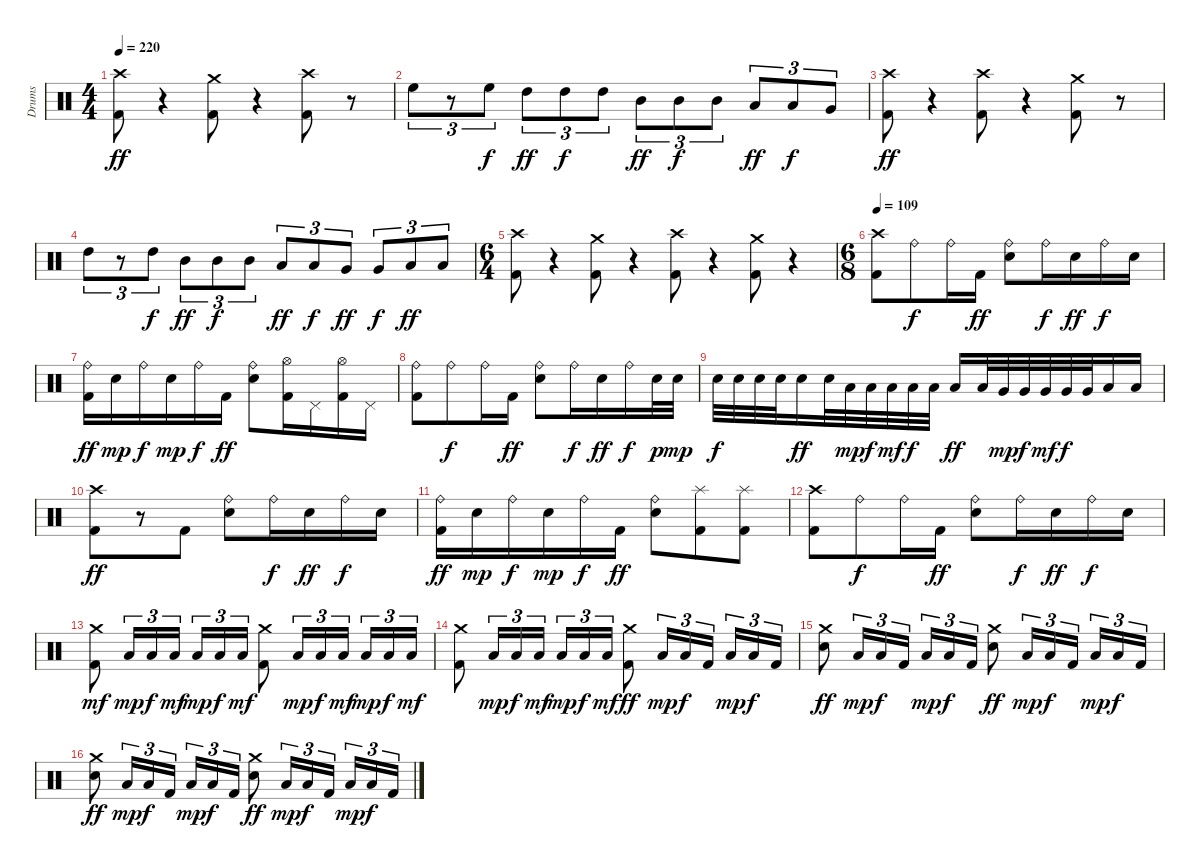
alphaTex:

\track ("Drums" "Drums") {instrument percussion}
\staff {score}
\articulation defaults
\ts (4 4)
\tempo 220
\clef neutral
\ks c
("Kick (hit) 2" "Crash high (hit)").8{dy ff} r.4 ("Kick (hit) 2" "Crash medium (hit)").8 r.4 ("Kick (hit) 2" "Crash high (hit)").8 r.8 |
"High Floor Tom (hit)".8{tu (3 2)} r.8{tu (3 2)} "High Floor Tom (hit)".8{tu (3 2) dy f} "High Tom (hit)".8{tu (3 2) dy ff} "High Tom (hit)".8{tu (3 2) dy f} "High Tom (hit)".8{tu (3 2)} "Mid Tom (hit)".8{tu (3 2) dy ff} "Mid Tom (hit)".8{tu (3 2) dy f} "Mid Tom (hit)".8{tu (3 2)} "Low Tom (hit)".8{tu (3 2) dy ff} "Low Tom (hit)".8{tu (3 2) dy f} "Very Low Tom (hit)".8{tu (3 2)} |
("Kick (hit) 2" "Crash high (hit)").8{dy ff} r.4 ("Kick (hit) 2" "Crash high (hit)").8 r.4 ("Kick (hit) 2" "Crash medium (hit)").8 r.8 |
"High Tom (hit)".8{tu (3 2)} r.8{tu (3 2)} "High Tom (hit)".8{tu (3 2) dy f} "Mid Tom (hit)".8{tu (3 2) dy ff} "Mid Tom (hit)".8{tu (3 2) dy f} "Mid Tom (hit)".8{tu (3 2)} "Low Tom (hit)".8{tu (3 2) dy ff} "Low Tom (hit)".8{tu (3 2) dy f} "Very Low Tom (hit)".8{tu (3 2) dy ff} "Very Low Tom (hit)".8{tu (3 2) dy f} "Low Floor Tom (hit)".8{tu (3 2) dy ff} "Low Floor Tom (hit)".8{tu (3 2)} |
\ts (6 4)
("Kick (hit) 2" "Crash high (hit)").8 r.4 ("Kick (hit) 2" "Crash medium (hit)").8 r.4 ("Kick (hit) 2" "Crash high (hit)").8 r.4 ("Kick (hit) 2" "Crash medium (hit)").8 r.4 |
\ts (6 8)
\tempo 109
("Kick (hit) 2" "Crash high (hit)").8 "Ride (bell)".8{dy f} "Ride (bell)".16 "Kick (hit) 2".16{dy ff} ("Electric Snare (hit)" "Ride (bell)").8 "Ride (bell)".16{dy f} "Electric Snare (hit)".16{dy ff} "Ride (bell)".16{dy f} "Electric Snare (hit)".16 |
("Kick (hit) 2" "Ride (bell)").16{dy ff} "Electric Snare (hit)".16{dy mp} "Ride (bell)".16{dy f} "Electric Snare (hit)".16{dy mp} "Ride (bell)".16{dy f} "Kick (hit) 2".16{dy ff} ("Electric Snare (hit)" "Ride (bell)").8 ("Kick (hit) 2" "Hi-Hat (open)").16 "Pedal Hi-Hat (hit)".16 ("Kick (hit) 2" "Hi-Hat (open)").16 "Pedal Hi-Hat (hit)".16 |
("Kick (hit) 2" "Ride (bell)").8 "Ride (bell)".8{dy f} "Ride (bell)".16 "Kick (hit) 2".16{dy ff} ("Electric Snare (hit)" "Ride (bell)").8 "Ride (bell)".16{dy f} "Electric Snare (hit)".16{dy ff} "Ride (bell)".16{dy f} "Electric Snare (hit)".32{dy p} "Electric Snare (hit)".32{dy mp} |
"Electric Snare (hit)".32{dy f} "Electric Snare (hit)".32 "Electric Snare (hit)".32 "Electric Snare (hit)".32 "Electric Snare (hit)".16{dy ff} "Electric Snare (hit)".32 "Low Tom (hit)".32{dy mp} "Low Tom (hit)".32{dy f} "Low Tom (hit)".32{dy mf} "Low Tom (hit)".32{dy f} "Low Tom (hit)".32 "Low Tom (hit)".16{dy ff} "Low Tom (hit)".32 "Very Low Tom (hit)".32{dy mp} "Very Low Tom (hit)".32{dy f} "Very Low Tom (hit)".32{dy mf} "Very Low Tom (hit)".32{dy f} "Very Low Tom (hit)".32 "Low Floor Tom (hit)".16 "Low Floor Tom (hit)".16 |
("Kick (hit) 2" "Crash high (hit)").8{dy ff} r.8 "Kick (hit) 2".8 ("Electric Snare (hit)" "Ride (bell)").8 "Ride (bell)".16{dy f} "Electric Snare (hit)".16{dy ff} "Ride (bell)".16{dy f} "Electric Snare (hit)".16 |
("Kick (hit) 2" "Ride (bell)").16{dy ff} "Electric Snare (hit)".16{dy mp} "Ride (bell)".16{dy f} "Electric Snare (hit)".16{dy mp} "Ride (bell)".16{dy f} "Kick (hit) 2".16{dy ff} ("Electric Snare (hit)" "Ride (bell)").8 ("Kick (hit) 2" "Splash (hit)").8 ("Kick (hit) 2" "Splash (hit)").8 |
("Kick (hit) 2" "Crash high (hit)").8 "Ride (bell)".8{dy f} "Ride (bell)".16 "Kick (hit) 2".16{dy ff} ("Electric Snare (hit)" "Ride (bell)").8 "Ride (bell)".16{dy f} "Electric Snare (hit)".16{dy ff} "Ride (bell)".16{dy f} "Electric Snare (hit)".16 |
("Kick (hit) 2" "Crash medium (hit)").8{dy mf} "Low Floor Tom (hit)".16{tu (3 2) dy mp} "Low Floor Tom (hit)".16{tu (3 2) dy f} "Low Floor Tom (hit)".16{tu (3 2) dy mf} "Low Floor Tom (hit)".16{tu (3 2) dy mp} "Low Floor Tom (hit)".16{tu (3 2) dy f} "Low Floor Tom (hit)".16{tu (3 2) dy mf} ("Kick (hit) 2" "Crash medium (hit)").8 "Low Floor Tom (hit)".16{tu (3 2) dy mp} "Low Floor Tom (hit)".16{tu (3 2) dy f} "Low Floor Tom (hit)".16{tu (3 2) dy mf} "Low Floor Tom (hit)".16{tu (3 2) dy mp} "Low Floor Tom (hit)".16{tu (3 2) dy f} "Low Floor Tom (hit)".16{tu (3 2) dy mf} |
("Kick (hit) 2" "Crash medium (hit)").8 "Low Floor Tom (hit)".16{tu (3 2) dy mp} "Low Floor Tom (hit)".16{tu (3 2) dy f} "Low Floor Tom (hit)".16{tu (3 2) dy mf} "Low Floor Tom (hit)".16{tu (3 2) dy mp} "Low Floor Tom (hit)".16{tu (3 2) dy f} "Low Floor Tom (hit)".16{tu (3 2) dy mf} ("Kick (hit) 2" "Crash medium (hit)").8{dy ff} "Low Floor Tom (hit)".16{tu (3 2) dy mp} "Low Floor Tom (hit)".16{tu (3 2) dy f} "Kick (hit) 2".16{tu (3 2)} "Low Floor Tom (hit)".16{tu (3 2) dy mp} "Low Floor Tom (hit)".16{tu (3 2) dy f} "Kick (hit) 2".16{tu (3 2)} |
("Electric Snare (hit)" "Crash medium (hit)").8{dy ff} "Low Floor Tom (hit)".16{tu (3 2) dy mp} "Low Floor Tom (hit)".16{tu (3 2) dy f} "Kick (hit) 2".16{tu (3 2)} "Low Floor Tom (hit)".16{tu (3 2) dy mp} "Low Floor Tom (hit)".16{tu (3 2) dy f} "Kick (hit) 2".16{tu (3 2)} ("Electric Snare (hit)" "Crash medium (hit)").8{dy ff} "Low Floor Tom (hit)".16{tu (3 2) dy mp} "Low Floor Tom (hit)".16{tu (3 2) dy f} "Kick (hit) 2".16{tu (3 2)} "Low Floor Tom (hit)".16{tu (3 2) dy mp} "Low Floor Tom (hit)".16{tu (3 2) dy f} "Kick (hit) 2".16{tu (3 2)} |
("Electric Snare (hit)" "Crash medium (hit)").8{dy ff} "Low Floor Tom (hit)".16{tu (3 2) dy mp} "Low Floor Tom (hit)".16{tu (3 2) dy f} "Kick (hit) 2".16{tu (3 2)} "Low Floor Tom (hit)".16{tu (3 2) dy mp} "Low Floor Tom (hit)".16{tu (3 2) dy f} "Kick (hit) 2".16{tu (3 2)} ("Electric Snare (hit)" "Crash medium (hit)").8{dy ff} "Low Floor Tom (hit)".16{tu (3 2) dy mp} "Low Floor Tom (hit)".16{tu (3 2) dy f} "Kick (hit) 2".16{tu (3 2)} "Low Floor Tom (hit)".16{tu (3 2) dy mp} "Low Floor Tom (hit)".16{tu (3 2) dy f} "Kick (hit) 2".16{tu (3 2)}
